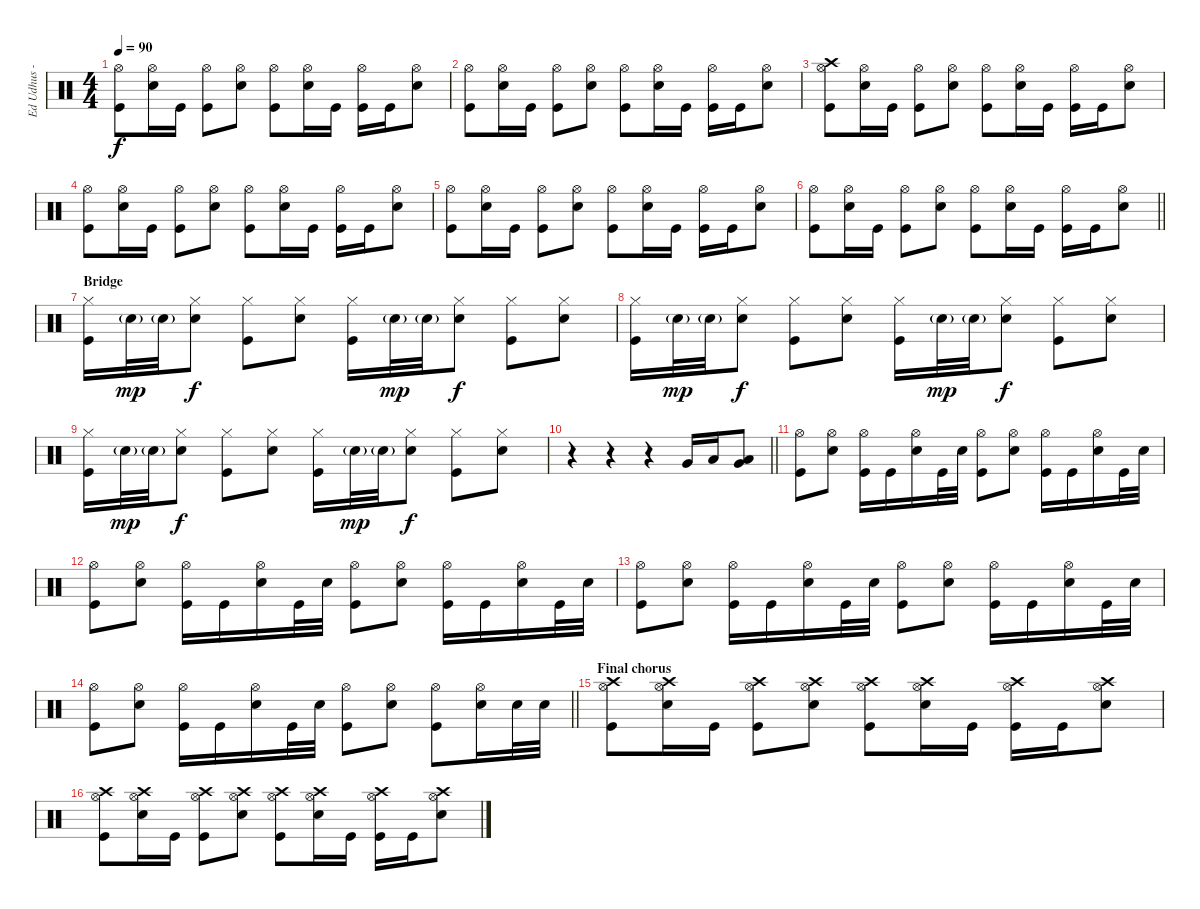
\track ("Ed Udhus - Drums" "Ed Udhus -") {instrument percussion}
\staff {score}
\articulation defaults
\ts (4 4)
\tempo 90
\clef neutral
\ks c
("Hi-Hat (open)" "Kick (hit)").8{dy f} ("Hi-Hat (open)" "Electric Snare (hit)").16 "Kick (hit)".16 ("Hi-Hat (open)" "Kick (hit)").8 ("Hi-Hat (open)" "Electric Snare (hit)").8 ("Hi-Hat (open)" "Kick (hit)").8 ("Hi-Hat (open)" "Electric Snare (hit)").16 "Kick (hit)".16 ("Hi-Hat (open)" "Kick (hit)").16 "Kick (hit)".16 ("Hi-Hat (open)" "Electric Snare (hit)").8 |
("Hi-Hat (open)" "Kick (hit)").8 ("Hi-Hat (open)" "Electric Snare (hit)").16 "Kick (hit)".16 ("Hi-Hat (open)" "Kick (hit)").8 ("Hi-Hat (open)" "Electric Snare (hit)").8 ("Hi-Hat (open)" "Kick (hit)").8 ("Hi-Hat (open)" "Electric Snare (hit)").16 "Kick (hit)".16 ("Hi-Hat (open)" "Kick (hit)").16 "Kick (hit)".16 ("Hi-Hat (open)" "Electric Snare (hit)").8 |
("Crash high (hit)" "Hi-Hat (open)" "Kick (hit)").8 ("Hi-Hat (open)" "Electric Snare (hit)").16 "Kick (hit)".16 ("Hi-Hat (open)" "Kick (hit)").8 ("Hi-Hat (open)" "Electric Snare (hit)").8 ("Hi-Hat (open)" "Kick (hit)").8 ("Hi-Hat (open)" "Electric Snare (hit)").16 "Kick (hit)".16 ("Hi-Hat (open)" "Kick (hit)").16 "Kick (hit)".16 ("Hi-Hat (open)" "Electric Snare (hit)").8 |
("Hi-Hat (open)" "Kick (hit)").8 ("Hi-Hat (open)" "Electric Snare (hit)").16 "Kick (hit)".16 ("Hi-Hat (open)" "Kick (hit)").8 ("Hi-Hat (open)" "Electric Snare (hit)").8 ("Hi-Hat (open)" "Kick (hit)").8 ("Hi-Hat (open)" "Electric Snare (hit)").16 "Kick (hit)".16 ("Hi-Hat (open)" "Kick (hit)").16 "Kick (hit)".16 ("Hi-Hat (open)" "Electric Snare (hit)").8 |
("Hi-Hat (open)" "Kick (hit)").8 ("Hi-Hat (open)" "Electric Snare (hit)").16 "Kick (hit)".16 ("Hi-Hat (open)" "Kick (hit)").8 ("Hi-Hat (open)" "Electric Snare (hit)").8 ("Hi-Hat (open)" "Kick (hit)").8 ("Hi-Hat (open)" "Electric Snare (hit)").16 "Kick (hit)".16 ("Hi-Hat (open)" "Kick (hit)").16 "Kick (hit)".16 ("Hi-Hat (open)" "Electric Snare (hit)").8 |
\barLineRight lightlight
("Hi-Hat (open)" "Kick (hit)").8 ("Hi-Hat (open)" "Electric Snare (hit)").16 "Kick (hit)".16 ("Hi-Hat (open)" "Kick (hit)").8 ("Hi-Hat (open)" "Electric Snare (hit)").8 ("Hi-Hat (open)" "Kick (hit)").8 ("Hi-Hat (open)" "Electric Snare (hit)").16 "Kick (hit)".16 ("Hi-Hat (open)" "Kick (hit)").16 "Kick (hit)".16 ("Hi-Hat (open)" "Electric Snare (hit)").8 |
\section ("" "Bridge")
("Hi-Hat (closed)" "Kick (hit)").16 "Electric Snare (hit)"{g}.32{dy mp} "Electric Snare (hit)"{g}.32 ("Hi-Hat (closed)" "Electric Snare (hit)").8{dy f} ("Hi-Hat (closed)" "Kick (hit)").8 ("Hi-Hat (closed)" "Electric Snare (hit)").8 ("Hi-Hat (closed)" "Kick (hit)").16 "Electric Snare (hit)"{g}.32{dy mp} "Electric Snare (hit)"{g}.32 ("Hi-Hat (closed)" "Electric Snare (hit)").8{dy f} ("Hi-Hat (closed)" "Kick (hit)").8 ("Hi-Hat (closed)" "Electric Snare (hit)").8 |
("Hi-Hat (closed)" "Kick (hit)").16 "Electric Snare (hit)"{g}.32{dy mp} "Electric Snare (hit)"{g}.32 ("Hi-Hat (closed)" "Electric Snare (hit)").8{dy f} ("Hi-Hat (closed)" "Kick (hit)").8 ("Hi-Hat (closed)" "Electric Snare (hit)").8 ("Hi-Hat (closed)" "Kick (hit)").16 "Electric Snare (hit)"{g}.32{dy mp} "Electric Snare (hit)"{g}.32 ("Hi-Hat (closed)" "Electric Snare (hit)").8{dy f} ("Hi-Hat (closed)" "Kick (hit)").8 ("Hi-Hat (closed)" "Electric Snare (hit)").8 |
("Hi-Hat (closed)" "Kick (hit)").16 "Electric Snare (hit)"{g}.32{dy mp} "Electric Snare (hit)"{g}.32 ("Hi-Hat (closed)" "Electric Snare (hit)").8{dy f} ("Hi-Hat (closed)" "Kick (hit)").8 ("Hi-Hat (closed)" "Electric Snare (hit)").8 ("Hi-Hat (closed)" "Kick (hit)").16 "Electric Snare (hit)"{g}.32{dy mp} "Electric Snare (hit)"{g}.32 ("Hi-Hat (closed)" "Electric Snare (hit)").8{dy f} ("Hi-Hat (closed)" "Kick (hit)").8 ("Hi-Hat (closed)" "Electric Snare (hit)").8 |
\barLineRight lightlight
r.4 r.4 r.4 "Very Low Tom (hit)".16 "Low Tom (hit)".16 ("Very Low Tom (hit)" "Low Floor Tom (hit)").8 |
("Hi-Hat (open)" "Kick (hit)").8 ("Hi-Hat (open)" "Electric Snare (hit)").8 ("Hi-Hat (open)" "Kick (hit)").16 "Kick (hit)".16 ("Hi-Hat (open)" "Electric Snare (hit)").16 "Kick (hit)".32 "Electric Snare (hit)".32 ("Hi-Hat (open)" "Kick (hit)").8 ("Hi-Hat (open)" "Electric Snare (hit)").8 ("Hi-Hat (open)" "Kick (hit)").16 "Kick (hit)".16 ("Hi-Hat (open)" "Electric Snare (hit)").16 "Kick (hit)".32 "Electric Snare (hit)".32 |
("Hi-Hat (open)" "Kick (hit)").8 ("Hi-Hat (open)" "Electric Snare (hit)").8 ("Hi-Hat (open)" "Kick (hit)").16 "Kick (hit)".16 ("Hi-Hat (open)" "Electric Snare (hit)").16 "Kick (hit)".32 "Electric Snare (hit)".32 ("Hi-Hat (open)" "Kick (hit)").8 ("Hi-Hat (open)" "Electric Snare (hit)").8 ("Hi-Hat (open)" "Kick (hit)").16 "Kick (hit)".16 ("Hi-Hat (open)" "Electric Snare (hit)").16 "Kick (hit)".32 "Electric Snare (hit)".32 |
("Hi-Hat (open)" "Kick (hit)").8 ("Hi-Hat (open)" "Electric Snare (hit)").8 ("Hi-Hat (open)" "Kick (hit)").16 "Kick (hit)".16 ("Hi-Hat (open)" "Electric Snare (hit)").16 "Kick (hit)".32 "Electric Snare (hit)".32 ("Hi-Hat (open)" "Kick (hit)").8 ("Hi-Hat (open)" "Electric Snare (hit)").8 ("Hi-Hat (open)" "Kick (hit)").16 "Kick (hit)".16 ("Hi-Hat (open)" "Electric Snare (hit)").16 "Kick (hit)".32 "Electric Snare (hit)".32 |
\barLineRight lightlight
("Hi-Hat (open)" "Kick (hit)").8 ("Hi-Hat (open)" "Electric Snare (hit)").8 ("Hi-Hat (open)" "Kick (hit)").16 "Kick (hit)".16 ("Hi-Hat (open)" "Electric Snare (hit)").16 "Kick (hit)".32 "Electric Snare (hit)".32 ("Hi-Hat (open)" "Kick (hit)").8 ("Hi-Hat (open)" "Electric Snare (hit)").8 ("Hi-Hat (open)" "Kick (hit)").8 ("Hi-Hat (open)" "Electric Snare (hit)").16 "Electric Snare (hit)".32 "Electric Snare (hit)".32 |
\section ("" "Final chorus")
("Crash high (hit)" "Hi-Hat (open)" "Kick (hit)").8 ("Crash high (hit)" "Hi-Hat (open)" "Electric Snare (hit)").16 "Kick (hit)".16 ("Crash high (hit)" "Hi-Hat (open)" "Kick (hit)").8 ("Crash high (hit)" "Hi-Hat (open)" "Electric Snare (hit)").8 ("Crash high (hit)" "Hi-Hat (open)" "Kick (hit)").8 ("Crash high (hit)" "Hi-Hat (open)" "Electric Snare (hit)").16 "Kick (hit)".16 ("Crash high (hit)" "Hi-Hat (open)" "Kick (hit)").16 "Kick (hit)".16 ("Crash high (hit)" "Hi-Hat (open)" "Electric Snare (hit)").8 |
("Crash high (hit)" "Hi-Hat (open)" "Kick (hit)").8 ("Crash high (hit)" "Hi-Hat (open)" "Electric Snare (hit)").16 "Kick (hit)".16 ("Crash high (hit)" "Hi-Hat (open)" "Kick (hit)").8 ("Crash high (hit)" "Hi-Hat (open)" "Electric Snare (hit)").8 ("Crash high (hit)" "Hi-Hat (open)" "Kick (hit)").8 ("Crash high (hit)" "Hi-Hat (open)" "Electric Snare (hit)").16 "Kick (hit)".16 ("Crash high (hit)" "Hi-Hat (open)" "Kick (hit)").16 "Kick (hit)".16 ("Crash high (hit)" "Hi-Hat (open)" "Electric Snare (hit)").8
